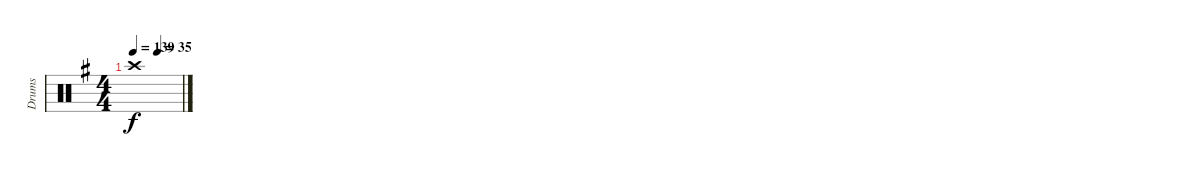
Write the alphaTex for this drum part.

\track ("Drums" "Drums") {instrument percussion}
\staff {score}
\articulation defaults
\ts (4 4)
\tempo 139
\tempo (35 0.5)
\clef neutral
\ks g "Crash high (hit)"{t}.1{dy f}
